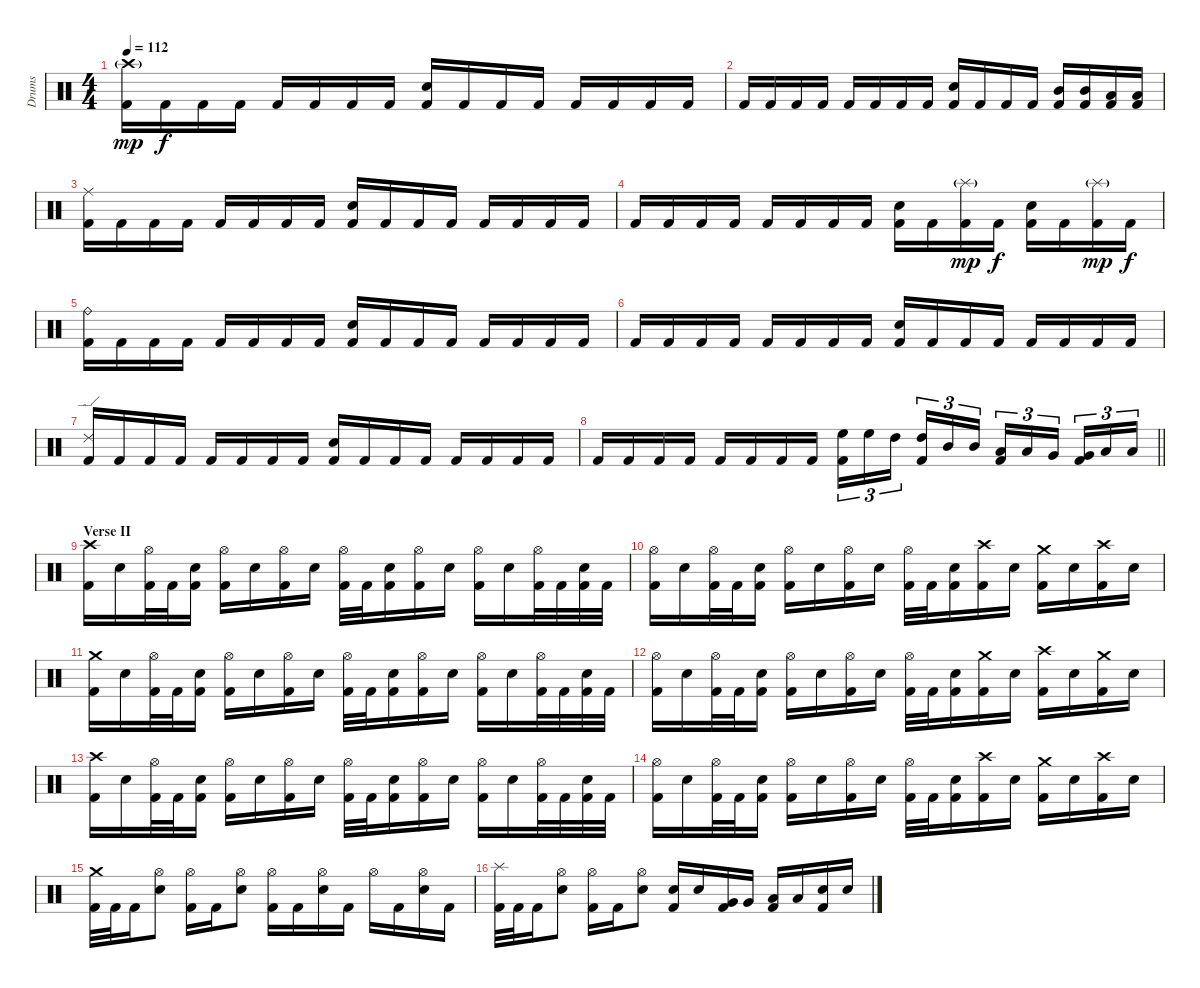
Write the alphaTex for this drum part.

\track ("Drums" "Drums") {instrument percussion}
\staff {score}
\articulation defaults
\ts (4 4)
\tempo 112
\clef neutral
\ks c
("Crash high (hit)"{g} "Kick (hit) 2").16{dy mp} "Kick (hit) 2".16{dy f} "Kick (hit) 2".16 "Kick (hit) 2".16 "Kick (hit) 2".16 "Kick (hit) 2".16 "Kick (hit) 2".16 "Kick (hit) 2".16 ("Electric Snare (hit)" "Kick (hit) 2").16 "Kick (hit) 2".16 "Kick (hit) 2".16 "Kick (hit) 2".16 "Kick (hit) 2".16 "Kick (hit) 2".16 "Kick (hit) 2".16 "Kick (hit) 2".16 |
"Kick (hit) 2".16 "Kick (hit) 2".16 "Kick (hit) 2".16 "Kick (hit) 2".16 "Kick (hit) 2".16 "Kick (hit) 2".16 "Kick (hit) 2".16 "Kick (hit) 2".16 ("Electric Snare (hit)" "Kick (hit) 2").16 "Kick (hit) 2".16 "Kick (hit) 2".16 "Kick (hit) 2".16 ("Mid Tom (hit)" "Kick (hit) 2").16 ("Mid Tom (hit)" "Kick (hit) 2").16 ("Low Tom (hit)" "Kick (hit) 2").16 ("Low Tom (hit)" "Kick (hit) 2").16 |
("Ride (middle)" "Kick (hit) 2").16 "Kick (hit) 2".16 "Kick (hit) 2".16 "Kick (hit) 2".16 "Kick (hit) 2".16 "Kick (hit) 2".16 "Kick (hit) 2".16 "Kick (hit) 2".16 ("Electric Snare (hit)" "Kick (hit) 2").16 "Kick (hit) 2".16 "Kick (hit) 2".16 "Kick (hit) 2".16 "Kick (hit) 2".16 "Kick (hit) 2".16 "Kick (hit) 2".16 "Kick (hit) 2".16 |
"Kick (hit) 2".16 "Kick (hit) 2".16 "Kick (hit) 2".16 "Kick (hit) 2".16 "Kick (hit) 2".16 "Kick (hit) 2".16 "Kick (hit) 2".16 "Kick (hit) 2".16 ("Electric Snare (hit)" "Kick (hit) 2").16 "Kick (hit) 2".16 ("Splash (hit)"{g} "Kick (hit) 2").16{dy mp} "Kick (hit) 2".16{dy f} ("Electric Snare (hit)" "Kick (hit) 2").16 "Kick (hit) 2".16 ("Splash (hit)"{g} "Kick (hit) 2").16{dy mp} "Kick (hit) 2".16{dy f} |
("Ride (bell)" "Kick (hit) 2").16 "Kick (hit) 2".16 "Kick (hit) 2".16 "Kick (hit) 2".16 "Kick (hit) 2".16 "Kick (hit) 2".16 "Kick (hit) 2".16 "Kick (hit) 2".16 ("Electric Snare (hit)" "Kick (hit) 2").16 "Kick (hit) 2".16 "Kick (hit) 2".16 "Kick (hit) 2".16 "Kick (hit) 2".16 "Kick (hit) 2".16 "Kick (hit) 2".16 "Kick (hit) 2".16 |
"Kick (hit) 2".16 "Kick (hit) 2".16 "Kick (hit) 2".16 "Kick (hit) 2".16 "Kick (hit) 2".16 "Kick (hit) 2".16 "Kick (hit) 2".16 "Kick (hit) 2".16 ("Electric Snare (hit)" "Kick (hit) 2").16 "Kick (hit) 2".16 "Kick (hit) 2".16 "Kick (hit) 2".16 "Kick (hit) 2".16 "Kick (hit) 2".16 "Kick (hit) 2".16 "Kick (hit) 2".16 |
("Ride (edge) 2" "Kick (hit) 2").16 "Kick (hit) 2".16 "Kick (hit) 2".16 "Kick (hit) 2".16 "Kick (hit) 2".16 "Kick (hit) 2".16 "Kick (hit) 2".16 "Kick (hit) 2".16 ("Electric Snare (hit)" "Kick (hit) 2").16 "Kick (hit) 2".16 "Kick (hit) 2".16 "Kick (hit) 2".16 "Kick (hit) 2".16 "Kick (hit) 2".16 "Kick (hit) 2".16 "Kick (hit) 2".16 |
\barLineRight lightlight "Kick (hit) 2".16 "Kick (hit) 2".16 "Kick (hit) 2".16 "Kick (hit) 2".16 "Kick (hit) 2".16 "Kick (hit) 2".16 "Kick (hit) 2".16 "Kick (hit) 2".16
("High Floor Tom (hit)" "Kick (hit) 2").16{tu (3 2)} "High Floor Tom (hit)".16{tu (3 2)} "High Tom (hit)".16{tu (3 2) beam splitsecondary} ("High Tom (hit)" "Kick (hit) 2").16{tu (3 2)} "Mid Tom (hit)".16{tu (3 2)} "Mid Tom (hit)".16{tu (3 2)} ("Low Tom (hit)" "Kick (hit) 2").16{tu (3 2)} "Low Tom (hit)".16{tu (3 2)} "Very Low Tom (hit)".16{tu (3 2) beam splitsecondary} ("Very Low Tom (hit)" "Kick (hit) 2").16{tu (3 2)} "Low Floor Tom (hit)".16{tu (3 2)} "Low Floor Tom (hit)".16{tu (3 2)} |
\section ("" "Verse II")
("Crash high (hit)" "Kick (hit) 2").16 "Electric Snare (hit)".16 ("Hi-Hat (open)" "Kick (hit) 2").32 "Kick (hit) 2".32 ("Electric Snare (hit)" "Kick (hit) 2").16 ("Hi-Hat (open)" "Kick (hit) 2").16 "Electric Snare (hit)".16 ("Hi-Hat (open)" "Kick (hit) 2").16 "Electric Snare (hit)".16 ("Hi-Hat (open)" "Kick (hit) 2").32 "Kick (hit) 2".32 ("Electric Snare (hit)" "Kick (hit) 2").16 ("Hi-Hat (open)" "Kick (hit) 2").16 "Electric Snare (hit)".16 ("Hi-Hat (open)" "Kick (hit) 2").16 "Electric Snare (hit)".16 ("Hi-Hat (open)" "Kick (hit) 2").32 "Kick (hit) 2".32 ("Electric Snare (hit)" "Kick (hit) 2").32 "Kick (hit) 2".32 |
("Hi-Hat (open)" "Kick (hit) 2").16 "Electric Snare (hit)".16 ("Hi-Hat (open)" "Kick (hit) 2").32 "Kick (hit) 2".32 ("Electric Snare (hit)" "Kick (hit) 2").16 ("Hi-Hat (open)" "Kick (hit) 2").16 "Electric Snare (hit)".16 ("Hi-Hat (open)" "Kick (hit) 2").16 "Electric Snare (hit)".16 ("Hi-Hat (open)" "Kick (hit) 2").32 "Kick (hit) 2".32 ("Electric Snare (hit)" "Kick (hit) 2").16 ("Crash high (hit)" "Kick (hit) 2").16 "Electric Snare (hit)".16 ("Crash medium (hit)" "Kick (hit) 2").16 "Electric Snare (hit)".16 ("Crash high (hit)" "Kick (hit) 2").16 "Electric Snare (hit)".16 |
("Crash medium (hit)" "Kick (hit) 2").16 "Electric Snare (hit)".16 ("Hi-Hat (open)" "Kick (hit) 2").32 "Kick (hit) 2".32 ("Electric Snare (hit)" "Kick (hit) 2").16 ("Hi-Hat (open)" "Kick (hit) 2").16 "Electric Snare (hit)".16 ("Hi-Hat (open)" "Kick (hit) 2").16 "Electric Snare (hit)".16 ("Hi-Hat (open)" "Kick (hit) 2").32 "Kick (hit) 2".32 ("Electric Snare (hit)" "Kick (hit) 2").16 ("Hi-Hat (open)" "Kick (hit) 2").16 "Electric Snare (hit)".16 ("Hi-Hat (open)" "Kick (hit) 2").16 "Electric Snare (hit)".16 ("Hi-Hat (open)" "Kick (hit) 2").32 "Kick (hit) 2".32 ("Electric Snare (hit)" "Kick (hit) 2").32 "Kick (hit) 2".32 |
("Hi-Hat (open)" "Kick (hit) 2").16 "Electric Snare (hit)".16 ("Hi-Hat (open)" "Kick (hit) 2").32 "Kick (hit) 2".32 ("Electric Snare (hit)" "Kick (hit) 2").16 ("Hi-Hat (open)" "Kick (hit) 2").16 "Electric Snare (hit)".16 ("Hi-Hat (open)" "Kick (hit) 2").16 "Electric Snare (hit)".16 ("Hi-Hat (open)" "Kick (hit) 2").32 "Kick (hit) 2".32 ("Electric Snare (hit)" "Kick (hit) 2").16 ("Crash medium (hit)" "Kick (hit) 2").16 "Electric Snare (hit)".16 ("Crash high (hit)" "Kick (hit) 2").16 "Electric Snare (hit)".16 ("Crash medium (hit)" "Kick (hit) 2").16 "Electric Snare (hit)".16 |
("Crash high (hit)" "Kick (hit) 2").16 "Electric Snare (hit)".16 ("Hi-Hat (open)" "Kick (hit) 2").32 "Kick (hit) 2".32 ("Electric Snare (hit)" "Kick (hit) 2").16 ("Hi-Hat (open)" "Kick (hit) 2").16 "Electric Snare (hit)".16 ("Hi-Hat (open)" "Kick (hit) 2").16 "Electric Snare (hit)".16 ("Hi-Hat (open)" "Kick (hit) 2").32 "Kick (hit) 2".32 ("Electric Snare (hit)" "Kick (hit) 2").16 ("Hi-Hat (open)" "Kick (hit) 2").16 "Electric Snare (hit)".16 ("Hi-Hat (open)" "Kick (hit) 2").16 "Electric Snare (hit)".16 ("Hi-Hat (open)" "Kick (hit) 2").32 "Kick (hit) 2".32 ("Electric Snare (hit)" "Kick (hit) 2").32 "Kick (hit) 2".32 |
("Hi-Hat (open)" "Kick (hit) 2").16 "Electric Snare (hit)".16 ("Hi-Hat (open)" "Kick (hit) 2").32 "Kick (hit) 2".32 ("Electric Snare (hit)" "Kick (hit) 2").16 ("Hi-Hat (open)" "Kick (hit) 2").16 "Electric Snare (hit)".16 ("Hi-Hat (open)" "Kick (hit) 2").16 "Electric Snare (hit)".16 ("Hi-Hat (open)" "Kick (hit) 2").32 "Kick (hit) 2".32 ("Electric Snare (hit)" "Kick (hit) 2").16 ("Crash high (hit)" "Kick (hit) 2").16 "Electric Snare (hit)".16 ("Crash medium (hit)" "Kick (hit) 2").16 "Electric Snare (hit)".16 ("Crash high (hit)" "Kick (hit) 2").16 "Electric Snare (hit)".16 |
("Crash medium (hit)" "Kick (hit) 2").32 "Kick (hit) 2".32 "Kick (hit) 2".16 ("Hi-Hat (open)" "Electric Snare (hit)").8 ("Hi-Hat (open)" "Kick (hit) 2").16 "Kick (hit) 2".16 ("Hi-Hat (open)" "Electric Snare (hit)").8 ("Hi-Hat (open)" "Kick (hit) 2").16 "Kick (hit) 2".16 ("Hi-Hat (open)" "Electric Snare (hit)").16 "Kick (hit) 2".16 "Hi-Hat (open)".16 "Kick (hit) 2".16 ("Hi-Hat (open)" "Electric Snare (hit)").16 "Kick (hit) 2".16 |
("Splash (hit)" "Kick (hit) 2").32 "Kick (hit) 2".32 "Kick (hit) 2".16 ("Hi-Hat (open)" "Electric Snare (hit)").8 ("Hi-Hat (open)" "Kick (hit) 2").16 "Kick (hit) 2".16 ("Hi-Hat (open)" "Electric Snare (hit)").8 ("Electric Snare (hit)" "Kick (hit) 2").16 "Electric Snare (hit)".16 ("Very Low Tom (hit)" "Kick (hit) 2").16 "Very Low Tom (hit)".16 ("Low Floor Tom (hit)" "Kick (hit) 2").16 "Low Floor Tom (hit)".16 ("Electric Snare (hit)" "Kick (hit) 2").16 "Electric Snare (hit)".16
